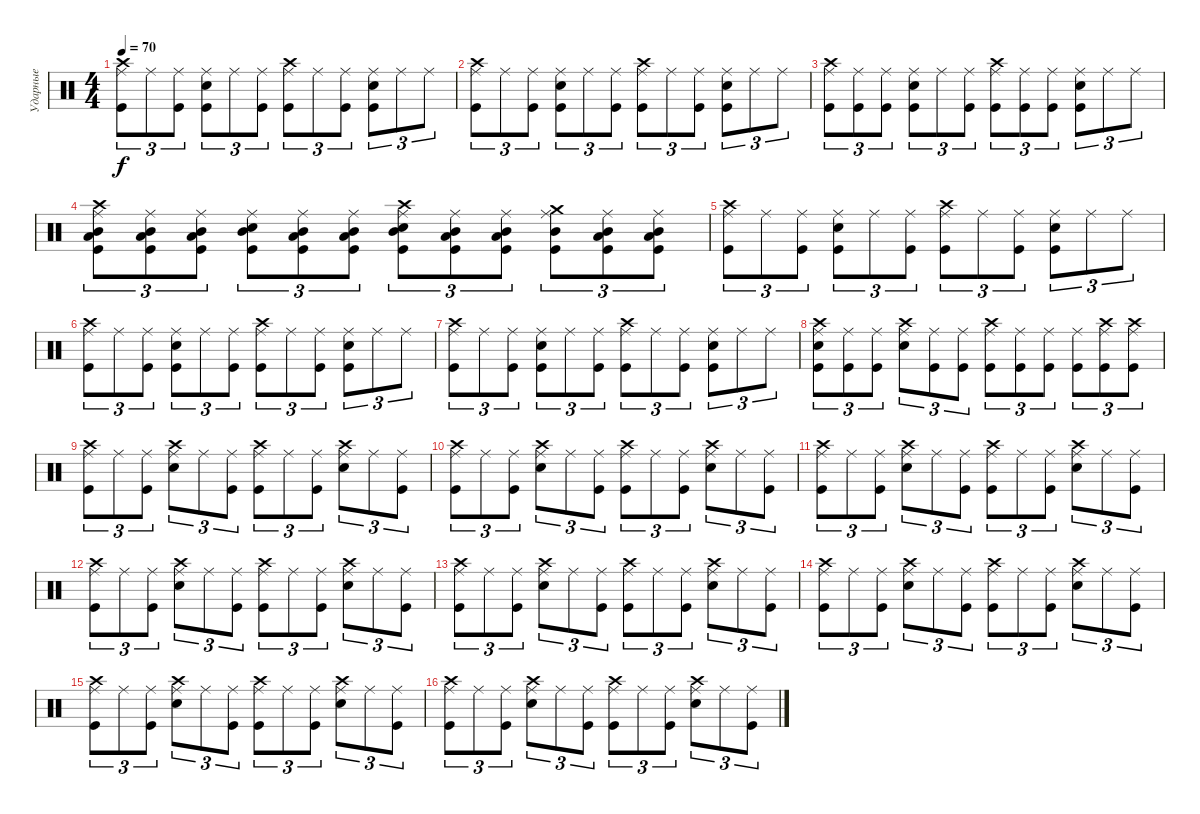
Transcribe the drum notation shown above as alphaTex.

\track ("Ударные" "Ударные") {instrument percussion}
\staff {score}
\articulation defaults
\ts (4 4)
\tempo 70
\clef neutral
\ks c
("Ride (middle)" "Crash high (hit)" "Kick (hit)").8{tu (3 2) dy f} "Ride (middle)".8{tu (3 2)} ("Ride (middle)" "Kick (hit)").8{tu (3 2)} ("Ride (middle)" "Kick (hit)" "Snare (hit) 2").8{tu (3 2)} "Ride (middle)".8{tu (3 2)} ("Ride (middle)" "Kick (hit)").8{tu (3 2)} ("Crash high (hit)" "Ride (middle)" "Kick (hit)").8{tu (3 2)} "Ride (middle)".8{tu (3 2)} ("Ride (middle)" "Kick (hit)").8{tu (3 2)} ("Ride (middle)" "Kick (hit)" "Snare (hit) 2").8{tu (3 2)} "Ride (middle)".8{tu (3 2)} "Ride (middle)".8{tu (3 2)} |
("Ride (middle)" "Crash high (hit)" "Kick (hit)").8{tu (3 2)} "Ride (middle)".8{tu (3 2)} ("Ride (middle)" "Kick (hit)").8{tu (3 2)} ("Ride (middle)" "Kick (hit)" "Snare (hit) 2").8{tu (3 2)} "Ride (middle)".8{tu (3 2)} ("Ride (middle)" "Kick (hit)").8{tu (3 2)} ("Crash high (hit)" "Ride (middle)" "Kick (hit)").8{tu (3 2)} "Ride (middle)".8{tu (3 2)} ("Ride (middle)" "Kick (hit)").8{tu (3 2)} ("Ride (middle)" "Kick (hit)" "Snare (hit) 2").8{tu (3 2)} "Ride (middle)".8{tu (3 2)} "Ride (middle)".8{tu (3 2)} |
("Ride (middle)" "Crash high (hit)" "Kick (hit)").8{tu (3 2)} ("Ride (middle)" "Kick (hit)").8{tu (3 2)} ("Ride (middle)" "Kick (hit)").8{tu (3 2)} ("Ride (middle)" "Kick (hit)" "Snare (hit) 2").8{tu (3 2)} "Ride (middle)".8{tu (3 2)} ("Ride (middle)" "Kick (hit)").8{tu (3 2)} ("Crash high (hit)" "Ride (middle)" "Kick (hit)").8{tu (3 2)} ("Ride (middle)" "Kick (hit)").8{tu (3 2)} ("Ride (middle)" "Kick (hit)").8{tu (3 2)} ("Ride (middle)" "Kick (hit)" "Snare (hit) 2").8{tu (3 2)} "Ride (middle)".8{tu (3 2)} "Ride (middle)".8{tu (3 2)} |
("Ride (middle)" "Crash high (hit)" "Kick (hit)" "Mid Tom (hit)" "Low Tom (hit)").8{tu (3 2)} ("Ride (middle)" "Kick (hit)" "Mid Tom (hit)" "Low Tom (hit)").8{tu (3 2)} ("Ride (middle)" "Kick (hit)" "Mid Tom (hit)" "Low Tom (hit)").8{tu (3 2)} ("Ride (middle)" "Kick (hit)" "Snare (hit) 2" "Mid Tom (hit)").8{tu (3 2)} ("Ride (middle)" "Kick (hit)" "Mid Tom (hit)" "Low Tom (hit)").8{tu (3 2)} ("Ride (middle)" "Kick (hit)" "Low Tom (hit)" "Mid Tom (hit)").8{tu (3 2)} ("Crash high (hit)" "Ride (middle)" "Kick (hit)" "Mid Tom (hit)" "Snare (hit) 2").8{tu (3 2)} ("Ride (middle)" "Kick (hit)" "Low Tom (hit)" "Mid Tom (hit)").8{tu (3 2)} ("Ride (middle)" "Kick (hit)" "Low Tom (hit)" "Mid Tom (hit)").8{tu (3 2)} ("Ride (middle)" "Kick (hit)" "Crash medium (hit)" "Mid Tom (hit)").8{tu (3 2)} ("Ride (middle)" "Kick (hit)" "Mid Tom (hit)" "Low Tom (hit)").8{tu (3 2)} ("Ride (middle)" "Kick (hit)" "Mid Tom (hit)" "Low Tom (hit)").8{tu (3 2)} |
("Ride (middle)" "Crash high (hit)" "Kick (hit)").8{tu (3 2)} "Ride (middle)".8{tu (3 2)} ("Ride (middle)" "Kick (hit)").8{tu (3 2)} ("Ride (middle)" "Kick (hit)" "Snare (hit) 2").8{tu (3 2)} "Ride (middle)".8{tu (3 2)} ("Ride (middle)" "Kick (hit)").8{tu (3 2)} ("Crash high (hit)" "Ride (middle)" "Kick (hit)").8{tu (3 2)} "Ride (middle)".8{tu (3 2)} ("Ride (middle)" "Kick (hit)").8{tu (3 2)} ("Ride (middle)" "Kick (hit)" "Snare (hit) 2").8{tu (3 2)} "Ride (middle)".8{tu (3 2)} "Ride (middle)".8{tu (3 2)} |
("Ride (middle)" "Crash high (hit)" "Kick (hit)").8{tu (3 2)} "Ride (middle)".8{tu (3 2)} ("Ride (middle)" "Kick (hit)").8{tu (3 2)} ("Ride (middle)" "Kick (hit)" "Snare (hit) 2").8{tu (3 2)} "Ride (middle)".8{tu (3 2)} ("Ride (middle)" "Kick (hit)").8{tu (3 2)} ("Crash high (hit)" "Ride (middle)" "Kick (hit)").8{tu (3 2)} "Ride (middle)".8{tu (3 2)} ("Ride (middle)" "Kick (hit)").8{tu (3 2)} ("Ride (middle)" "Kick (hit)" "Snare (hit) 2").8{tu (3 2)} "Ride (middle)".8{tu (3 2)} "Ride (middle)".8{tu (3 2)} |
("Ride (middle)" "Crash high (hit)" "Kick (hit)").8{tu (3 2)} "Ride (middle)".8{tu (3 2)} ("Ride (middle)" "Kick (hit)").8{tu (3 2)} ("Ride (middle)" "Kick (hit)" "Snare (hit) 2").8{tu (3 2)} "Ride (middle)".8{tu (3 2)} ("Ride (middle)" "Kick (hit)").8{tu (3 2)} ("Crash high (hit)" "Ride (middle)" "Kick (hit)").8{tu (3 2)} "Ride (middle)".8{tu (3 2)} ("Ride (middle)" "Kick (hit)").8{tu (3 2)} ("Ride (middle)" "Kick (hit)" "Snare (hit) 2").8{tu (3 2)} "Ride (middle)".8{tu (3 2)} "Ride (middle)".8{tu (3 2)} |
("Ride (middle)" "Crash high (hit)" "Kick (hit)" "Snare (hit) 2").8{tu (3 2)} ("Ride (middle)" "Kick (hit)").8{tu (3 2)} ("Ride (middle)" "Kick (hit)").8{tu (3 2)} ("Ride (middle)" "Crash high (hit)" "Snare (hit) 2").8{tu (3 2)} ("Ride (middle)" "Kick (hit)").8{tu (3 2)} ("Ride (middle)" "Kick (hit)").8{tu (3 2)} ("Crash high (hit)" "Ride (middle)" "Kick (hit)").8{tu (3 2)} ("Ride (middle)" "Kick (hit)").8{tu (3 2)} ("Ride (middle)" "Kick (hit)").8{tu (3 2)} ("Ride (middle)" "Kick (hit)").8{tu (3 2)} ("Crash high (hit)" "Kick (hit)" "Ride (middle)").8{tu (3 2)} ("Ride (middle)" "Kick (hit)" "Crash high (hit)").8{tu (3 2)} |
("Ride (middle)" "Crash high (hit)" "Kick (hit)").8{tu (3 2)} "Ride (middle)".8{tu (3 2)} ("Ride (middle)" "Kick (hit)").8{tu (3 2)} ("Ride (middle)" "Crash high (hit)" "Snare (hit) 2").8{tu (3 2)} "Ride (middle)".8{tu (3 2)} ("Ride (middle)" "Kick (hit)").8{tu (3 2)} ("Crash high (hit)" "Ride (middle)" "Kick (hit)").8{tu (3 2)} "Ride (middle)".8{tu (3 2)} ("Ride (middle)" "Kick (hit)").8{tu (3 2)} ("Ride (middle)" "Crash high (hit)" "Snare (hit) 2").8{tu (3 2)} "Ride (middle)".8{tu (3 2)} ("Ride (middle)" "Kick (hit)").8{tu (3 2)} |
("Ride (middle)" "Crash high (hit)" "Kick (hit)").8{tu (3 2)} "Ride (middle)".8{tu (3 2)} ("Ride (middle)" "Kick (hit)").8{tu (3 2)} ("Ride (middle)" "Crash high (hit)" "Snare (hit) 2").8{tu (3 2)} "Ride (middle)".8{tu (3 2)} ("Ride (middle)" "Kick (hit)").8{tu (3 2)} ("Crash high (hit)" "Ride (middle)" "Kick (hit)").8{tu (3 2)} "Ride (middle)".8{tu (3 2)} ("Ride (middle)" "Kick (hit)").8{tu (3 2)} ("Ride (middle)" "Crash high (hit)" "Snare (hit) 2").8{tu (3 2)} "Ride (middle)".8{tu (3 2)} ("Ride (middle)" "Kick (hit)").8{tu (3 2)} |
("Ride (middle)" "Crash high (hit)" "Kick (hit)").8{tu (3 2)} "Ride (middle)".8{tu (3 2)} ("Ride (middle)" "Kick (hit)").8{tu (3 2)} ("Ride (middle)" "Crash high (hit)" "Snare (hit) 2").8{tu (3 2)} "Ride (middle)".8{tu (3 2)} ("Ride (middle)" "Kick (hit)").8{tu (3 2)} ("Crash high (hit)" "Ride (middle)" "Kick (hit)").8{tu (3 2)} "Ride (middle)".8{tu (3 2)} ("Ride (middle)" "Kick (hit)").8{tu (3 2)} ("Ride (middle)" "Crash high (hit)" "Snare (hit) 2").8{tu (3 2)} "Ride (middle)".8{tu (3 2)} ("Ride (middle)" "Kick (hit)").8{tu (3 2)} |
("Ride (middle)" "Crash high (hit)" "Kick (hit)").8{tu (3 2)} "Ride (middle)".8{tu (3 2)} ("Ride (middle)" "Kick (hit)").8{tu (3 2)} ("Ride (middle)" "Crash high (hit)" "Snare (hit) 2").8{tu (3 2)} "Ride (middle)".8{tu (3 2)} ("Ride (middle)" "Kick (hit)").8{tu (3 2)} ("Crash high (hit)" "Ride (middle)" "Kick (hit)").8{tu (3 2)} "Ride (middle)".8{tu (3 2)} ("Ride (middle)" "Kick (hit)").8{tu (3 2)} ("Ride (middle)" "Crash high (hit)" "Snare (hit) 2").8{tu (3 2)} "Ride (middle)".8{tu (3 2)} ("Ride (middle)" "Kick (hit)").8{tu (3 2)} |
("Ride (middle)" "Crash high (hit)" "Kick (hit)").8{tu (3 2)} "Ride (middle)".8{tu (3 2)} ("Ride (middle)" "Kick (hit)").8{tu (3 2)} ("Ride (middle)" "Crash high (hit)" "Snare (hit) 2").8{tu (3 2)} "Ride (middle)".8{tu (3 2)} ("Ride (middle)" "Kick (hit)").8{tu (3 2)} ("Crash high (hit)" "Ride (middle)" "Kick (hit)").8{tu (3 2)} "Ride (middle)".8{tu (3 2)} ("Ride (middle)" "Kick (hit)").8{tu (3 2)} ("Ride (middle)" "Crash high (hit)" "Snare (hit) 2").8{tu (3 2)} "Ride (middle)".8{tu (3 2)} ("Ride (middle)" "Kick (hit)").8{tu (3 2)} |
("Ride (middle)" "Crash high (hit)" "Kick (hit)").8{tu (3 2)} "Ride (middle)".8{tu (3 2)} ("Ride (middle)" "Kick (hit)").8{tu (3 2)} ("Ride (middle)" "Crash high (hit)" "Snare (hit) 2").8{tu (3 2)} "Ride (middle)".8{tu (3 2)} ("Ride (middle)" "Kick (hit)").8{tu (3 2)} ("Crash high (hit)" "Ride (middle)" "Kick (hit)").8{tu (3 2)} "Ride (middle)".8{tu (3 2)} ("Ride (middle)" "Kick (hit)").8{tu (3 2)} ("Ride (middle)" "Crash high (hit)" "Snare (hit) 2").8{tu (3 2)} "Ride (middle)".8{tu (3 2)} ("Ride (middle)" "Kick (hit)").8{tu (3 2)} |
("Ride (middle)" "Crash high (hit)" "Kick (hit)").8{tu (3 2)} "Ride (middle)".8{tu (3 2)} ("Ride (middle)" "Kick (hit)").8{tu (3 2)} ("Ride (middle)" "Crash high (hit)" "Snare (hit) 2").8{tu (3 2)} "Ride (middle)".8{tu (3 2)} ("Ride (middle)" "Kick (hit)").8{tu (3 2)} ("Crash high (hit)" "Ride (middle)" "Kick (hit)").8{tu (3 2)} "Ride (middle)".8{tu (3 2)} ("Ride (middle)" "Kick (hit)").8{tu (3 2)} ("Ride (middle)" "Crash high (hit)" "Snare (hit) 2").8{tu (3 2)} "Ride (middle)".8{tu (3 2)} ("Ride (middle)" "Kick (hit)").8{tu (3 2)} |
("Ride (middle)" "Crash high (hit)" "Kick (hit)").8{tu (3 2)} "Ride (middle)".8{tu (3 2)} ("Ride (middle)" "Kick (hit)").8{tu (3 2)} ("Ride (middle)" "Crash high (hit)" "Snare (hit) 2").8{tu (3 2)} "Ride (middle)".8{tu (3 2)} ("Ride (middle)" "Kick (hit)").8{tu (3 2)} ("Crash high (hit)" "Ride (middle)" "Kick (hit)").8{tu (3 2)} "Ride (middle)".8{tu (3 2)} ("Ride (middle)" "Kick (hit)").8{tu (3 2)} ("Ride (middle)" "Crash high (hit)" "Snare (hit) 2").8{tu (3 2)} "Ride (middle)".8{tu (3 2)} ("Ride (middle)" "Kick (hit)").8{tu (3 2)}
